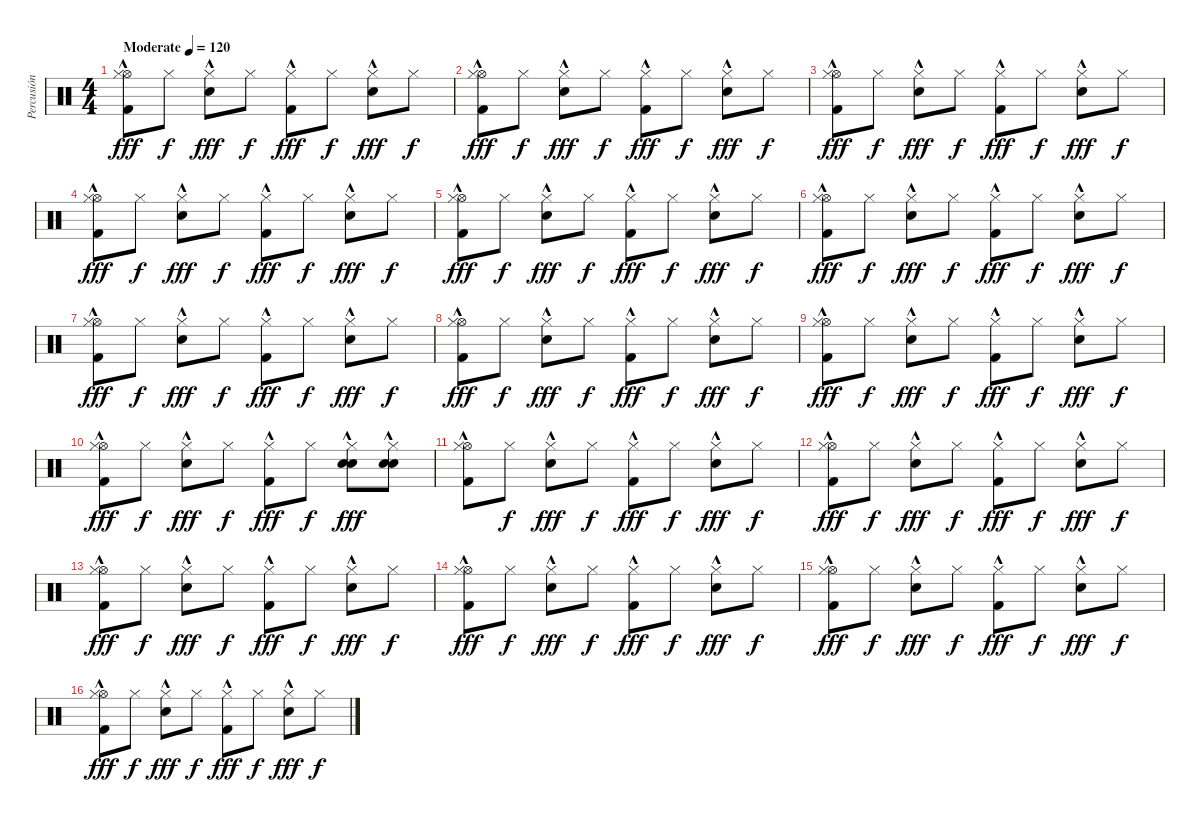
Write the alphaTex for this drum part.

\track ("Percusión" "Percusión") {instrument percussion}
\staff {score}
\articulation defaults
\ts (4 4)
\tempo (120 "Moderate")
\clef neutral
\ks c
("Hi-Hat (open)"{hac} "Hi-Hat (closed)" "Kick (hit) 2"{hac}).8{dy fff} "Hi-Hat (closed)".8{dy f} ("Hi-Hat (closed)" "Electric Snare (hit)"{hac}).8{dy fff} "Hi-Hat (closed)".8{dy f} ("Hi-Hat (closed)" "Kick (hit) 2"{hac}).8{dy fff} "Hi-Hat (closed)".8{dy f} ("Hi-Hat (closed)" "Electric Snare (hit)"{hac}).8{dy fff} "Hi-Hat (closed)".8{dy f} |
("Hi-Hat (open)"{hac} "Hi-Hat (closed)" "Kick (hit) 2"{hac}).8{dy fff} "Hi-Hat (closed)".8{dy f} ("Hi-Hat (closed)" "Electric Snare (hit)"{hac}).8{dy fff} "Hi-Hat (closed)".8{dy f} ("Hi-Hat (closed)" "Kick (hit) 2"{hac}).8{dy fff} "Hi-Hat (closed)".8{dy f} ("Hi-Hat (closed)" "Electric Snare (hit)"{hac}).8{dy fff} "Hi-Hat (closed)".8{dy f} |
("Hi-Hat (open)"{hac} "Hi-Hat (closed)" "Kick (hit) 2"{hac}).8{dy fff} "Hi-Hat (closed)".8{dy f} ("Hi-Hat (closed)" "Electric Snare (hit)"{hac}).8{dy fff} "Hi-Hat (closed)".8{dy f} ("Hi-Hat (closed)" "Kick (hit) 2"{hac}).8{dy fff} "Hi-Hat (closed)".8{dy f} ("Hi-Hat (closed)" "Electric Snare (hit)"{hac}).8{dy fff} "Hi-Hat (closed)".8{dy f} |
("Hi-Hat (open)"{hac} "Hi-Hat (closed)" "Kick (hit) 2"{hac}).8{dy fff} "Hi-Hat (closed)".8{dy f} ("Hi-Hat (closed)" "Electric Snare (hit)"{hac}).8{dy fff} "Hi-Hat (closed)".8{dy f} ("Hi-Hat (closed)" "Kick (hit) 2"{hac}).8{dy fff} "Hi-Hat (closed)".8{dy f} ("Hi-Hat (closed)" "Electric Snare (hit)"{hac}).8{dy fff} "Hi-Hat (closed)".8{dy f} |
("Hi-Hat (open)"{hac} "Hi-Hat (closed)" "Kick (hit) 2"{hac}).8{dy fff} "Hi-Hat (closed)".8{dy f} ("Hi-Hat (closed)" "Electric Snare (hit)"{hac}).8{dy fff} "Hi-Hat (closed)".8{dy f} ("Hi-Hat (closed)" "Kick (hit) 2"{hac}).8{dy fff} "Hi-Hat (closed)".8{dy f} ("Hi-Hat (closed)" "Electric Snare (hit)"{hac}).8{dy fff} "Hi-Hat (closed)".8{dy f} |
("Hi-Hat (open)"{hac} "Hi-Hat (closed)" "Kick (hit) 2"{hac}).8{dy fff} "Hi-Hat (closed)".8{dy f} ("Hi-Hat (closed)" "Electric Snare (hit)"{hac}).8{dy fff} "Hi-Hat (closed)".8{dy f} ("Hi-Hat (closed)" "Kick (hit) 2"{hac}).8{dy fff} "Hi-Hat (closed)".8{dy f} ("Hi-Hat (closed)" "Electric Snare (hit)"{hac}).8{dy fff} "Hi-Hat (closed)".8{dy f} |
("Hi-Hat (open)"{hac} "Hi-Hat (closed)" "Kick (hit) 2"{hac}).8{dy fff} "Hi-Hat (closed)".8{dy f} ("Hi-Hat (closed)" "Electric Snare (hit)"{hac}).8{dy fff} "Hi-Hat (closed)".8{dy f} ("Hi-Hat (closed)" "Kick (hit) 2"{hac}).8{dy fff} "Hi-Hat (closed)".8{dy f} ("Hi-Hat (closed)" "Electric Snare (hit)"{hac}).8{dy fff} "Hi-Hat (closed)".8{dy f} |
("Hi-Hat (open)"{hac} "Hi-Hat (closed)" "Kick (hit) 2"{hac}).8{dy fff} "Hi-Hat (closed)".8{dy f} ("Hi-Hat (closed)" "Electric Snare (hit)"{hac}).8{dy fff} "Hi-Hat (closed)".8{dy f} ("Hi-Hat (closed)" "Kick (hit) 2"{hac}).8{dy fff} "Hi-Hat (closed)".8{dy f} ("Hi-Hat (closed)" "Electric Snare (hit)"{hac}).8{dy fff} "Hi-Hat (closed)".8{dy f} |
("Hi-Hat (open)"{hac} "Hi-Hat (closed)" "Kick (hit) 2"{hac}).8{dy fff} "Hi-Hat (closed)".8{dy f} ("Hi-Hat (closed)" "Electric Snare (hit)"{hac}).8{dy fff} "Hi-Hat (closed)".8{dy f} ("Hi-Hat (closed)" "Kick (hit) 2"{hac}).8{dy fff} "Hi-Hat (closed)".8{dy f} ("Hi-Hat (closed)" "Electric Snare (hit)"{hac}).8{dy fff} "Hi-Hat (closed)".8{dy f} |
("Hi-Hat (open)"{hac} "Hi-Hat (closed)" "Kick (hit) 2"{hac}).8{dy fff} "Hi-Hat (closed)".8{dy f} ("Hi-Hat (closed)" "Electric Snare (hit)"{hac}).8{dy fff} "Hi-Hat (closed)".8{dy f} ("Hi-Hat (closed)" "Kick (hit) 2"{hac}).8{dy fff} "Hi-Hat (closed)".8{dy f} ("Hi-Hat (closed)" "Electric Snare (hit)"{hac} "Electric Snare (hit)"{hac}).8{dy fff} ("Hi-Hat (closed)" "Electric Snare (hit)"{hac} "Electric Snare (hit)"{hac}).8 |
("Hi-Hat (open)"{hac} "Hi-Hat (closed)" "Kick (hit) 2"{hac}).8 "Hi-Hat (closed)".8{dy f} ("Hi-Hat (closed)" "Electric Snare (hit)"{hac}).8{dy fff} "Hi-Hat (closed)".8{dy f} ("Hi-Hat (closed)" "Kick (hit) 2"{hac}).8{dy fff} "Hi-Hat (closed)".8{dy f} ("Hi-Hat (closed)" "Electric Snare (hit)"{hac}).8{dy fff} "Hi-Hat (closed)".8{dy f} |
("Hi-Hat (open)"{hac} "Hi-Hat (closed)" "Kick (hit) 2"{hac}).8{dy fff} "Hi-Hat (closed)".8{dy f} ("Hi-Hat (closed)" "Electric Snare (hit)"{hac}).8{dy fff} "Hi-Hat (closed)".8{dy f} ("Hi-Hat (closed)" "Kick (hit) 2"{hac}).8{dy fff} "Hi-Hat (closed)".8{dy f} ("Hi-Hat (closed)" "Electric Snare (hit)"{hac}).8{dy fff} "Hi-Hat (closed)".8{dy f} |
("Hi-Hat (open)"{hac} "Hi-Hat (closed)" "Kick (hit) 2"{hac}).8{dy fff} "Hi-Hat (closed)".8{dy f} ("Hi-Hat (closed)" "Electric Snare (hit)"{hac}).8{dy fff} "Hi-Hat (closed)".8{dy f} ("Hi-Hat (closed)" "Kick (hit) 2"{hac}).8{dy fff} "Hi-Hat (closed)".8{dy f} ("Hi-Hat (closed)" "Electric Snare (hit)"{hac}).8{dy fff} "Hi-Hat (closed)".8{dy f} |
("Hi-Hat (open)"{hac} "Hi-Hat (closed)" "Kick (hit) 2"{hac}).8{dy fff} "Hi-Hat (closed)".8{dy f} ("Hi-Hat (closed)" "Electric Snare (hit)"{hac}).8{dy fff} "Hi-Hat (closed)".8{dy f} ("Hi-Hat (closed)" "Kick (hit) 2"{hac}).8{dy fff} "Hi-Hat (closed)".8{dy f} ("Hi-Hat (closed)" "Electric Snare (hit)"{hac}).8{dy fff} "Hi-Hat (closed)".8{dy f} |
("Hi-Hat (open)"{hac} "Hi-Hat (closed)" "Kick (hit) 2"{hac}).8{dy fff} "Hi-Hat (closed)".8{dy f} ("Hi-Hat (closed)" "Electric Snare (hit)"{hac}).8{dy fff} "Hi-Hat (closed)".8{dy f} ("Hi-Hat (closed)" "Kick (hit) 2"{hac}).8{dy fff} "Hi-Hat (closed)".8{dy f} ("Hi-Hat (closed)" "Electric Snare (hit)"{hac}).8{dy fff} "Hi-Hat (closed)".8{dy f} |
("Hi-Hat (open)"{hac} "Hi-Hat (closed)" "Kick (hit) 2"{hac}).8{dy fff} "Hi-Hat (closed)".8{dy f} ("Hi-Hat (closed)" "Electric Snare (hit)"{hac}).8{dy fff} "Hi-Hat (closed)".8{dy f} ("Hi-Hat (closed)" "Kick (hit) 2"{hac}).8{dy fff} "Hi-Hat (closed)".8{dy f} ("Hi-Hat (closed)" "Electric Snare (hit)"{hac}).8{dy fff} "Hi-Hat (closed)".8{dy f}
